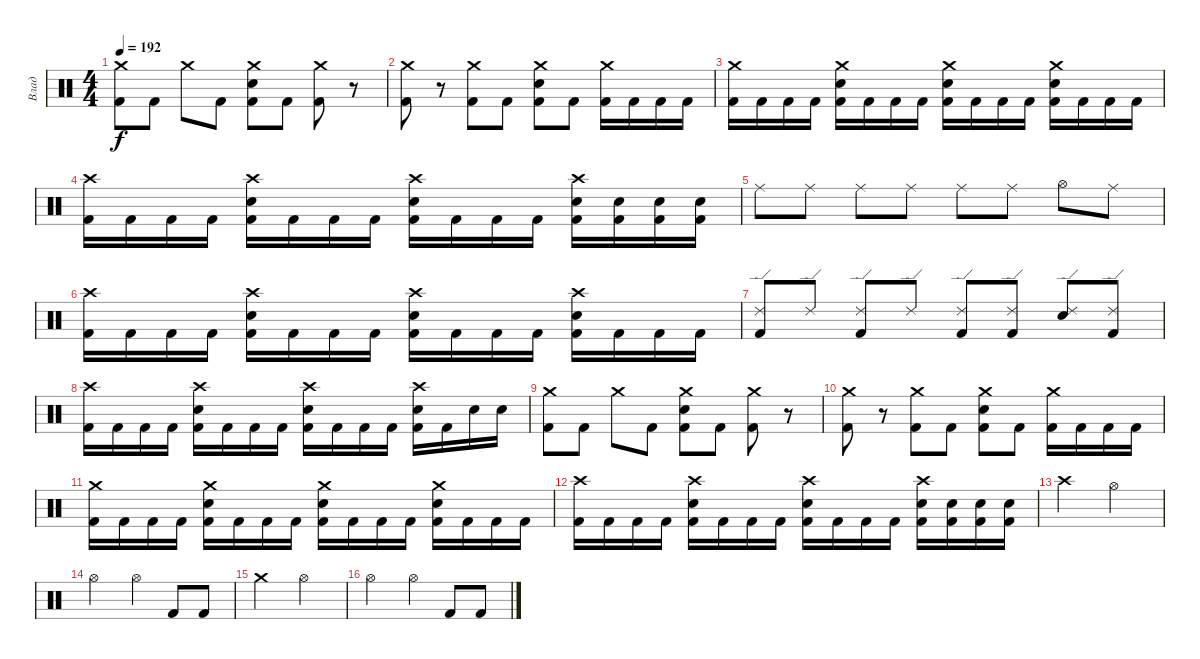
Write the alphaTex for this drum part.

\track ("Влад" "Влад") {instrument percussion}
\staff {score}
\articulation defaults
\ts (4 4)
\tempo 192
\clef neutral
\ks c
("Crash medium (hit)" "Kick (hit) 2").8{dy f} "Kick (hit) 2".8 "Crash medium (hit)".8 "Kick (hit) 2".8 ("Crash medium (hit)" "Snare (hit) 2" "Kick (hit) 2").8 "Kick (hit) 2".8 ("Crash medium (hit)" "Kick (hit) 2").8 r.8 |
("Crash medium (hit)" "Kick (hit) 2").8 r.8 ("Crash medium (hit)" "Kick (hit) 2").8 "Kick (hit) 2".8 ("Crash medium (hit)" "Snare (hit) 2" "Kick (hit) 2").8 "Kick (hit) 2".8 ("Crash medium (hit)" "Kick (hit) 2").16 "Kick (hit) 2".16 "Kick (hit) 2".16 "Kick (hit) 2".16 |
("Crash medium (hit)" "Kick (hit) 2").16 "Kick (hit) 2".16 "Kick (hit) 2".16 "Kick (hit) 2".16 ("Crash medium (hit)" "Snare (hit) 2" "Kick (hit) 2").16 "Kick (hit) 2".16 "Kick (hit) 2".16 "Kick (hit) 2".16 ("Crash medium (hit)" "Snare (hit) 2" "Kick (hit) 2").16 "Kick (hit) 2".16 "Kick (hit) 2".16 "Kick (hit) 2".16 ("Crash medium (hit)" "Snare (hit) 2" "Kick (hit) 2").16 "Kick (hit) 2".16 "Kick (hit) 2".16 "Kick (hit) 2".16 |
("Crash high (hit)" "Kick (hit) 2").16 "Kick (hit) 2".16 "Kick (hit) 2".16 "Kick (hit) 2".16 ("Crash high (hit)" "Snare (hit) 2" "Kick (hit) 2").16 "Kick (hit) 2".16 "Kick (hit) 2".16 "Kick (hit) 2".16 ("Crash high (hit)" "Snare (hit) 2" "Kick (hit) 2").16 "Kick (hit) 2".16 "Kick (hit) 2".16 "Kick (hit) 2".16 ("Crash high (hit)" "Snare (hit) 2" "Kick (hit) 2").16 ("Snare (hit) 2" "Kick (hit) 2").16 ("Snare (hit) 2" "Kick (hit) 2").16 ("Snare (hit) 2" "Kick (hit) 2").16 |
"Ride (middle)".8 "Ride (middle)".8 "Ride (middle)".8 "Ride (middle)".8 "Ride (middle)".8 "Ride (middle)".8 "Hi-Hat (open)".8 "Ride (middle)".8 |
("Crash high (hit)" "Kick (hit) 2").16 "Kick (hit) 2".16 "Kick (hit) 2".16 "Kick (hit) 2".16 ("Crash high (hit)" "Snare (hit) 2" "Kick (hit) 2").16 "Kick (hit) 2".16 "Kick (hit) 2".16 "Kick (hit) 2".16 ("Crash high (hit)" "Snare (hit) 2" "Kick (hit) 2").16 "Kick (hit) 2".16 "Kick (hit) 2".16 "Kick (hit) 2".16 ("Crash high (hit)" "Snare (hit) 2" "Kick (hit) 2").16 "Kick (hit) 2".16 "Kick (hit) 2".16 "Kick (hit) 2".16 |
("Ride (edge) 2" "Kick (hit) 2").8 "Ride (edge) 2".8 ("Ride (edge) 2" "Kick (hit) 2").8 "Ride (edge) 2".8 ("Ride (edge) 2" "Kick (hit) 2").8 ("Ride (edge) 2" "Kick (hit) 2").8 ("Ride (edge) 2" "Snare (hit) 2").8 ("Ride (edge) 2" "Kick (hit) 2").8 |
("Crash high (hit)" "Kick (hit) 2").16 "Kick (hit) 2".16 "Kick (hit) 2".16 "Kick (hit) 2".16 ("Crash high (hit)" "Snare (hit) 2" "Kick (hit) 2").16 "Kick (hit) 2".16 "Kick (hit) 2".16 "Kick (hit) 2".16 ("Crash high (hit)" "Snare (hit) 2" "Kick (hit) 2").16 "Kick (hit) 2".16 "Kick (hit) 2".16 "Kick (hit) 2".16 ("Crash high (hit)" "Snare (hit) 2" "Kick (hit) 2").16 "Kick (hit) 2".16 "Snare (hit) 2".16 "Snare (hit) 2".16 |
("Crash medium (hit)" "Kick (hit) 2").8 "Kick (hit) 2".8 "Crash medium (hit)".8 "Kick (hit) 2".8 ("Crash medium (hit)" "Snare (hit) 2" "Kick (hit) 2").8 "Kick (hit) 2".8 ("Crash medium (hit)" "Kick (hit) 2").8 r.8 |
("Crash medium (hit)" "Kick (hit) 2").8 r.8 ("Crash medium (hit)" "Kick (hit) 2").8 "Kick (hit) 2".8 ("Crash medium (hit)" "Snare (hit) 2" "Kick (hit) 2").8 "Kick (hit) 2".8 ("Crash medium (hit)" "Kick (hit) 2").16 "Kick (hit) 2".16 "Kick (hit) 2".16 "Kick (hit) 2".16 |
("Crash medium (hit)" "Kick (hit) 2").16 "Kick (hit) 2".16 "Kick (hit) 2".16 "Kick (hit) 2".16 ("Crash medium (hit)" "Snare (hit) 2" "Kick (hit) 2").16 "Kick (hit) 2".16 "Kick (hit) 2".16 "Kick (hit) 2".16 ("Crash medium (hit)" "Snare (hit) 2" "Kick (hit) 2").16 "Kick (hit) 2".16 "Kick (hit) 2".16 "Kick (hit) 2".16 ("Crash medium (hit)" "Snare (hit) 2" "Kick (hit) 2").16 "Kick (hit) 2".16 "Kick (hit) 2".16 "Kick (hit) 2".16 |
("Crash high (hit)" "Kick (hit) 2").16 "Kick (hit) 2".16 "Kick (hit) 2".16 "Kick (hit) 2".16 ("Crash high (hit)" "Snare (hit) 2" "Kick (hit) 2").16 "Kick (hit) 2".16 "Kick (hit) 2".16 "Kick (hit) 2".16 ("Crash high (hit)" "Snare (hit) 2" "Kick (hit) 2").16 "Kick (hit) 2".16 "Kick (hit) 2".16 "Kick (hit) 2".16 ("Crash high (hit)" "Snare (hit) 2" "Kick (hit) 2").16 ("Snare (hit) 2" "Kick (hit) 2").16 ("Snare (hit) 2" "Kick (hit) 2").16 ("Snare (hit) 2" "Kick (hit) 2").16 |
"Crash high (hit)".2 "Hi-Hat (open)".2 |
"Hi-Hat (open)".2 "Hi-Hat (open)".4 "Kick (hit) 2".8 "Kick (hit) 2".8 |
"Crash medium (hit)".2 "Hi-Hat (open)".2 |
"Hi-Hat (open)".2 "Hi-Hat (open)".4 "Kick (hit) 2".8 "Kick (hit) 2".8
